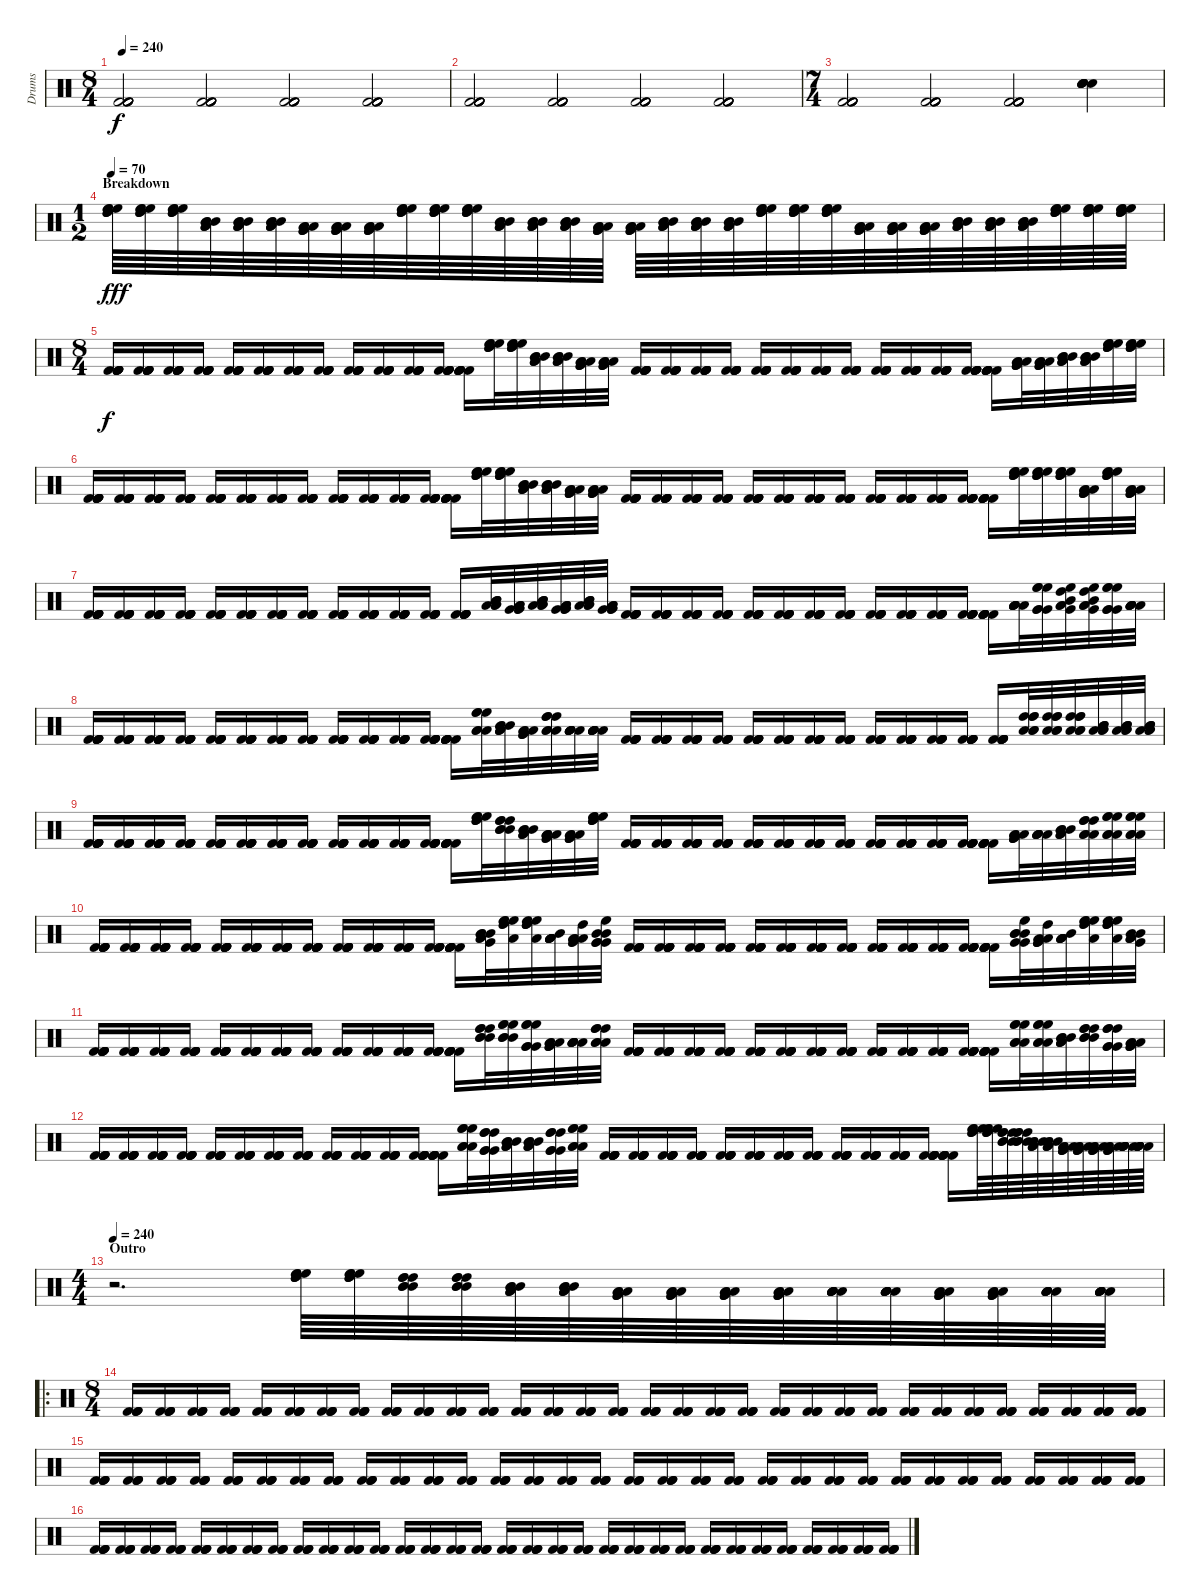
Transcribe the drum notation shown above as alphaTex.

\track ("Drums" "Drums") {instrument percussion}
\staff {score}
\articulation defaults
\ts (8 4)
\tempo 240
\clef neutral
\ks c
("Kick (hit) 2" "Kick (hit) 2" "Kick (hit) 2" "Kick (hit) 2" "Kick (hit) 2" "Kick (hit) 2").2{dy f} ("Kick (hit) 2" "Kick (hit) 2" "Kick (hit) 2" "Kick (hit) 2" "Kick (hit) 2" "Kick (hit) 2").2 ("Kick (hit) 2" "Kick (hit) 2" "Kick (hit) 2" "Kick (hit) 2" "Kick (hit) 2" "Kick (hit) 2").2 ("Kick (hit) 2" "Kick (hit) 2" "Kick (hit) 2" "Kick (hit) 2" "Kick (hit) 2" "Kick (hit) 2").2 |
("Kick (hit) 2" "Kick (hit) 2" "Kick (hit) 2" "Kick (hit) 2" "Kick (hit) 2" "Kick (hit) 2").2 ("Kick (hit) 2" "Kick (hit) 2" "Kick (hit) 2" "Kick (hit) 2" "Kick (hit) 2" "Kick (hit) 2").2 ("Kick (hit) 2" "Kick (hit) 2" "Kick (hit) 2" "Kick (hit) 2" "Kick (hit) 2" "Kick (hit) 2").2 ("Kick (hit) 2" "Kick (hit) 2" "Kick (hit) 2" "Kick (hit) 2" "Kick (hit) 2" "Kick (hit) 2").2 |
\ts (7 4)
("Kick (hit) 2" "Kick (hit) 2" "Kick (hit) 2" "Kick (hit) 2" "Kick (hit) 2" "Kick (hit) 2").2 ("Kick (hit) 2" "Kick (hit) 2" "Kick (hit) 2" "Kick (hit) 2" "Kick (hit) 2" "Kick (hit) 2").2 ("Kick (hit) 2" "Kick (hit) 2" "Kick (hit) 2" "Kick (hit) 2" "Kick (hit) 2" "Kick (hit) 2").2 ("Snare (hit) 2" "Snare (hit) 2" "Snare (hit) 2" "Snare (hit) 2" "Snare (hit) 2" "Snare (hit) 2").4 |
\ts (1 2)
\section ("" "Breakdown")
\tempo 70
("High Floor Tom (hit)" "High Floor Tom (hit)" "High Floor Tom (hit)" "High Tom (hit)" "High Tom (hit)" "High Tom (hit)").64{dy fff} ("High Floor Tom (hit)" "High Floor Tom (hit)" "High Floor Tom (hit)" "High Tom (hit)" "High Tom (hit)" "High Tom (hit)").64 ("High Floor Tom (hit)" "High Floor Tom (hit)" "High Floor Tom (hit)" "High Tom (hit)" "High Tom (hit)" "High Tom (hit)").64 ("Mid Tom (hit)" "Mid Tom (hit)" "Mid Tom (hit)" "Low Tom (hit)" "Low Tom (hit)" "Low Tom (hit)").64 ("Mid Tom (hit)" "Mid Tom (hit)" "Mid Tom (hit)" "Low Tom (hit)" "Low Tom (hit)" "Low Tom (hit)").64 ("Mid Tom (hit)" "Mid Tom (hit)" "Mid Tom (hit)" "Low Tom (hit)" "Low Tom (hit)" "Low Tom (hit)").64 ("Very Low Tom (hit)" "Very Low Tom (hit)" "Very Low Tom (hit)" "Low Floor Tom (hit)" "Low Floor Tom (hit)" "Low Floor Tom (hit)").64 ("Very Low Tom (hit)" "Very Low Tom (hit)" "Very Low Tom (hit)" "Low Floor Tom (hit)" "Low Floor Tom (hit)" "Low Floor Tom (hit)").64 ("Very Low Tom (hit)" "Very Low Tom (hit)" "Very Low Tom (hit)" "Low Floor Tom (hit)" "Low Floor Tom (hit)" "Low Floor Tom (hit)").64 ("High Floor Tom (hit)" "High Floor Tom (hit)" "High Floor Tom (hit)" "High Tom (hit)" "High Tom (hit)" "High Tom (hit)").64 ("High Floor Tom (hit)" "High Floor Tom (hit)" "High Floor Tom (hit)" "High Tom (hit)" "High Tom (hit)" "High Tom (hit)").64 ("High Floor Tom (hit)" "High Floor Tom (hit)" "High Floor Tom (hit)" "High Tom (hit)" "High Tom (hit)" "High Tom (hit)").64 ("Mid Tom (hit)" "Mid Tom (hit)" "Mid Tom (hit)" "Low Tom (hit)" "Low Tom (hit)" "Low Tom (hit)").64 ("Mid Tom (hit)" "Mid Tom (hit)" "Mid Tom (hit)" "Low Tom (hit)" "Low Tom (hit)" "Low Tom (hit)").64 ("Mid Tom (hit)" "Mid Tom (hit)" "Mid Tom (hit)" "Low Tom (hit)" "Low Tom (hit)" "Low Tom (hit)").64 ("Very Low Tom (hit)" "Very Low Tom (hit)" "Very Low Tom (hit)" "Low Floor Tom (hit)" "Low Floor Tom (hit)" "Low Floor Tom (hit)").64 ("Very Low Tom (hit)" "Very Low Tom (hit)" "Very Low Tom (hit)" "Low Floor Tom (hit)" "Low Floor Tom (hit)" "Low Floor Tom (hit)").64 ("Mid Tom (hit)" "Mid Tom (hit)" "Mid Tom (hit)" "Low Tom (hit)" "Low Tom (hit)" "Low Tom (hit)").64 ("Mid Tom (hit)" "Mid Tom (hit)" "Mid Tom (hit)" "Low Tom (hit)" "Low Tom (hit)" "Low Tom (hit)").64 ("Mid Tom (hit)" "Mid Tom (hit)" "Mid Tom (hit)" "Low Tom (hit)" "Low Tom (hit)" "Low Tom (hit)").64 ("High Floor Tom (hit)" "High Floor Tom (hit)" "High Floor Tom (hit)" "High Tom (hit)" "High Tom (hit)" "High Tom (hit)").64 ("High Floor Tom (hit)" "High Floor Tom (hit)" "High Floor Tom (hit)" "High Tom (hit)" "High Tom (hit)" "High Tom (hit)").64 ("High Floor Tom (hit)" "High Floor Tom (hit)" "High Floor Tom (hit)" "High Tom (hit)" "High Tom (hit)" "High Tom (hit)").64 ("Very Low Tom (hit)" "Very Low Tom (hit)" "Very Low Tom (hit)" "Low Floor Tom (hit)" "Low Floor Tom (hit)" "Low Floor Tom (hit)").64 ("Very Low Tom (hit)" "Very Low Tom (hit)" "Very Low Tom (hit)" "Low Floor Tom (hit)" "Low Floor Tom (hit)" "Low Floor Tom (hit)").64 ("Very Low Tom (hit)" "Very Low Tom (hit)" "Very Low Tom (hit)" "Low Floor Tom (hit)" "Low Floor Tom (hit)" "Low Floor Tom (hit)").64 ("Mid Tom (hit)" "Mid Tom (hit)" "Mid Tom (hit)" "Low Tom (hit)" "Low Tom (hit)" "Low Tom (hit)").64 ("Mid Tom (hit)" "Mid Tom (hit)" "Mid Tom (hit)" "Low Tom (hit)" "Low Tom (hit)" "Low Tom (hit)").64 ("Mid Tom (hit)" "Mid Tom (hit)" "Mid Tom (hit)" "Low Tom (hit)" "Low Tom (hit)" "Low Tom (hit)").64 ("High Floor Tom (hit)" "High Floor Tom (hit)" "High Floor Tom (hit)" "High Tom (hit)" "High Tom (hit)" "High Tom (hit)").64 ("High Floor Tom (hit)" "High Floor Tom (hit)" "High Floor Tom (hit)" "High Tom (hit)" "High Tom (hit)" "High Tom (hit)").64 ("High Floor Tom (hit)" "High Floor Tom (hit)" "High Floor Tom (hit)" "High Tom (hit)" "High Tom (hit)" "High Tom (hit)").64 |
\ts (8 4)
("Kick (hit) 2" "Kick (hit) 2" "Kick (hit) 2" "Kick (hit) 2" "Kick (hit) 2" "Kick (hit) 2").16{dy f} ("Kick (hit) 2" "Kick (hit) 2" "Kick (hit) 2" "Kick (hit) 2" "Kick (hit) 2" "Kick (hit) 2").16 ("Kick (hit) 2" "Kick (hit) 2" "Kick (hit) 2" "Kick (hit) 2" "Kick (hit) 2" "Kick (hit) 2").16 ("Kick (hit) 2" "Kick (hit) 2" "Kick (hit) 2" "Kick (hit) 2" "Kick (hit) 2" "Kick (hit) 2").16 ("Kick (hit) 2" "Kick (hit) 2" "Kick (hit) 2" "Kick (hit) 2" "Kick (hit) 2" "Kick (hit) 2").16 ("Kick (hit) 2" "Kick (hit) 2" "Kick (hit) 2" "Kick (hit) 2" "Kick (hit) 2" "Kick (hit) 2").16 ("Kick (hit) 2" "Kick (hit) 2" "Kick (hit) 2" "Kick (hit) 2" "Kick (hit) 2" "Kick (hit) 2").16 ("Kick (hit) 2" "Kick (hit) 2" "Kick (hit) 2" "Kick (hit) 2" "Kick (hit) 2" "Kick (hit) 2").16 ("Kick (hit) 2" "Kick (hit) 2" "Kick (hit) 2" "Kick (hit) 2" "Kick (hit) 2" "Kick (hit) 2").16 ("Kick (hit) 2" "Kick (hit) 2" "Kick (hit) 2" "Kick (hit) 2" "Kick (hit) 2" "Kick (hit) 2").16 ("Kick (hit) 2" "Kick (hit) 2" "Kick (hit) 2" "Kick (hit) 2" "Kick (hit) 2" "Kick (hit) 2").16 ("Kick (hit) 2" "Kick (hit) 2" "Kick (hit) 2" "Kick (hit) 2" "Kick (hit) 2" "Kick (hit) 2").16 ("Kick (hit) 2" "Kick (hit) 2" "Kick (hit) 2" "Kick (hit) 2" "Kick (hit) 2" "Kick (hit) 2").16 ("High Floor Tom (hit)" "High Floor Tom (hit)" "High Floor Tom (hit)" "High Tom (hit)" "High Tom (hit)" "High Tom (hit)").32 ("High Floor Tom (hit)" "High Floor Tom (hit)" "High Floor Tom (hit)" "High Tom (hit)" "High Tom (hit)" "High Tom (hit)").32 ("Mid Tom (hit)" "Mid Tom (hit)" "Mid Tom (hit)" "Low Tom (hit)" "Low Tom (hit)" "Low Tom (hit)").32 ("Mid Tom (hit)" "Mid Tom (hit)" "Mid Tom (hit)" "Low Tom (hit)" "Low Tom (hit)" "Low Tom (hit)").32 ("Very Low Tom (hit)" "Very Low Tom (hit)" "Very Low Tom (hit)" "Low Floor Tom (hit)" "Low Floor Tom (hit)" "Low Floor Tom (hit)").32 ("Very Low Tom (hit)" "Very Low Tom (hit)" "Very Low Tom (hit)" "Low Floor Tom (hit)" "Low Floor Tom (hit)" "Low Floor Tom (hit)").32 ("Kick (hit) 2" "Kick (hit) 2" "Kick (hit) 2" "Kick (hit) 2" "Kick (hit) 2" "Kick (hit) 2").16 ("Kick (hit) 2" "Kick (hit) 2" "Kick (hit) 2" "Kick (hit) 2" "Kick (hit) 2" "Kick (hit) 2").16 ("Kick (hit) 2" "Kick (hit) 2" "Kick (hit) 2" "Kick (hit) 2" "Kick (hit) 2" "Kick (hit) 2").16 ("Kick (hit) 2" "Kick (hit) 2" "Kick (hit) 2" "Kick (hit) 2" "Kick (hit) 2" "Kick (hit) 2").16 ("Kick (hit) 2" "Kick (hit) 2" "Kick (hit) 2" "Kick (hit) 2" "Kick (hit) 2" "Kick (hit) 2").16 ("Kick (hit) 2" "Kick (hit) 2" "Kick (hit) 2" "Kick (hit) 2" "Kick (hit) 2" "Kick (hit) 2").16 ("Kick (hit) 2" "Kick (hit) 2" "Kick (hit) 2" "Kick (hit) 2" "Kick (hit) 2" "Kick (hit) 2").16 ("Kick (hit) 2" "Kick (hit) 2" "Kick (hit) 2" "Kick (hit) 2" "Kick (hit) 2" "Kick (hit) 2").16 ("Kick (hit) 2" "Kick (hit) 2" "Kick (hit) 2" "Kick (hit) 2" "Kick (hit) 2" "Kick (hit) 2").16 ("Kick (hit) 2" "Kick (hit) 2" "Kick (hit) 2" "Kick (hit) 2" "Kick (hit) 2" "Kick (hit) 2").16 ("Kick (hit) 2" "Kick (hit) 2" "Kick (hit) 2" "Kick (hit) 2" "Kick (hit) 2" "Kick (hit) 2").16 ("Kick (hit) 2" "Kick (hit) 2" "Kick (hit) 2" "Kick (hit) 2" "Kick (hit) 2" "Kick (hit) 2").16 ("Kick (hit) 2" "Kick (hit) 2" "Kick (hit) 2" "Kick (hit) 2" "Kick (hit) 2" "Kick (hit) 2").16 ("Very Low Tom (hit)" "Very Low Tom (hit)" "Very Low Tom (hit)" "Low Floor Tom (hit)" "Low Floor Tom (hit)" "Low Floor Tom (hit)").32 ("Very Low Tom (hit)" "Very Low Tom (hit)" "Very Low Tom (hit)" "Low Floor Tom (hit)" "Low Floor Tom (hit)" "Low Floor Tom (hit)").32 ("Mid Tom (hit)" "Mid Tom (hit)" "Mid Tom (hit)" "Low Tom (hit)" "Low Tom (hit)" "Low Tom (hit)").32 ("Mid Tom (hit)" "Mid Tom (hit)" "Mid Tom (hit)" "Low Tom (hit)" "Low Tom (hit)" "Low Tom (hit)").32 ("High Floor Tom (hit)" "High Floor Tom (hit)" "High Floor Tom (hit)" "High Tom (hit)" "High Tom (hit)" "High Tom (hit)").32 ("High Floor Tom (hit)" "High Floor Tom (hit)" "High Floor Tom (hit)" "High Tom (hit)" "High Tom (hit)" "High Tom (hit)").32 |
("Kick (hit) 2" "Kick (hit) 2" "Kick (hit) 2" "Kick (hit) 2" "Kick (hit) 2" "Kick (hit) 2").16 ("Kick (hit) 2" "Kick (hit) 2" "Kick (hit) 2" "Kick (hit) 2" "Kick (hit) 2" "Kick (hit) 2").16 ("Kick (hit) 2" "Kick (hit) 2" "Kick (hit) 2" "Kick (hit) 2" "Kick (hit) 2" "Kick (hit) 2").16 ("Kick (hit) 2" "Kick (hit) 2" "Kick (hit) 2" "Kick (hit) 2" "Kick (hit) 2" "Kick (hit) 2").16 ("Kick (hit) 2" "Kick (hit) 2" "Kick (hit) 2" "Kick (hit) 2" "Kick (hit) 2" "Kick (hit) 2").16 ("Kick (hit) 2" "Kick (hit) 2" "Kick (hit) 2" "Kick (hit) 2" "Kick (hit) 2" "Kick (hit) 2").16 ("Kick (hit) 2" "Kick (hit) 2" "Kick (hit) 2" "Kick (hit) 2" "Kick (hit) 2" "Kick (hit) 2").16 ("Kick (hit) 2" "Kick (hit) 2" "Kick (hit) 2" "Kick (hit) 2" "Kick (hit) 2" "Kick (hit) 2").16 ("Kick (hit) 2" "Kick (hit) 2" "Kick (hit) 2" "Kick (hit) 2" "Kick (hit) 2" "Kick (hit) 2").16 ("Kick (hit) 2" "Kick (hit) 2" "Kick (hit) 2" "Kick (hit) 2" "Kick (hit) 2" "Kick (hit) 2").16 ("Kick (hit) 2" "Kick (hit) 2" "Kick (hit) 2" "Kick (hit) 2" "Kick (hit) 2" "Kick (hit) 2").16 ("Kick (hit) 2" "Kick (hit) 2" "Kick (hit) 2" "Kick (hit) 2" "Kick (hit) 2" "Kick (hit) 2").16 ("Kick (hit) 2" "Kick (hit) 2" "Kick (hit) 2" "Kick (hit) 2" "Kick (hit) 2" "Kick (hit) 2").16 ("High Floor Tom (hit)" "High Floor Tom (hit)" "High Floor Tom (hit)" "High Tom (hit)" "High Tom (hit)" "High Tom (hit)").32 ("High Floor Tom (hit)" "High Floor Tom (hit)" "High Floor Tom (hit)" "High Tom (hit)" "High Tom (hit)" "High Tom (hit)").32 ("Mid Tom (hit)" "Mid Tom (hit)" "Mid Tom (hit)" "Low Tom (hit)" "Low Tom (hit)" "Low Tom (hit)").32 ("Mid Tom (hit)" "Mid Tom (hit)" "Mid Tom (hit)" "Low Tom (hit)" "Low Tom (hit)" "Low Tom (hit)").32 ("Very Low Tom (hit)" "Very Low Tom (hit)" "Very Low Tom (hit)" "Low Floor Tom (hit)" "Low Floor Tom (hit)" "Low Floor Tom (hit)").32 ("Very Low Tom (hit)" "Very Low Tom (hit)" "Very Low Tom (hit)" "Low Floor Tom (hit)" "Low Floor Tom (hit)" "Low Floor Tom (hit)").32 ("Kick (hit) 2" "Kick (hit) 2" "Kick (hit) 2" "Kick (hit) 2" "Kick (hit) 2" "Kick (hit) 2").16 ("Kick (hit) 2" "Kick (hit) 2" "Kick (hit) 2" "Kick (hit) 2" "Kick (hit) 2" "Kick (hit) 2").16 ("Kick (hit) 2" "Kick (hit) 2" "Kick (hit) 2" "Kick (hit) 2" "Kick (hit) 2" "Kick (hit) 2").16 ("Kick (hit) 2" "Kick (hit) 2" "Kick (hit) 2" "Kick (hit) 2" "Kick (hit) 2" "Kick (hit) 2").16 ("Kick (hit) 2" "Kick (hit) 2" "Kick (hit) 2" "Kick (hit) 2" "Kick (hit) 2" "Kick (hit) 2").16 ("Kick (hit) 2" "Kick (hit) 2" "Kick (hit) 2" "Kick (hit) 2" "Kick (hit) 2" "Kick (hit) 2").16 ("Kick (hit) 2" "Kick (hit) 2" "Kick (hit) 2" "Kick (hit) 2" "Kick (hit) 2" "Kick (hit) 2").16 ("Kick (hit) 2" "Kick (hit) 2" "Kick (hit) 2" "Kick (hit) 2" "Kick (hit) 2" "Kick (hit) 2").16 ("Kick (hit) 2" "Kick (hit) 2" "Kick (hit) 2" "Kick (hit) 2" "Kick (hit) 2" "Kick (hit) 2").16 ("Kick (hit) 2" "Kick (hit) 2" "Kick (hit) 2" "Kick (hit) 2" "Kick (hit) 2" "Kick (hit) 2").16 ("Kick (hit) 2" "Kick (hit) 2" "Kick (hit) 2" "Kick (hit) 2" "Kick (hit) 2" "Kick (hit) 2").16 ("Kick (hit) 2" "Kick (hit) 2" "Kick (hit) 2" "Kick (hit) 2" "Kick (hit) 2" "Kick (hit) 2").16 ("Kick (hit) 2" "Kick (hit) 2" "Kick (hit) 2" "Kick (hit) 2" "Kick (hit) 2" "Kick (hit) 2").16 ("High Floor Tom (hit)" "High Floor Tom (hit)" "High Floor Tom (hit)" "High Tom (hit)" "High Tom (hit)" "High Tom (hit)").32 ("High Floor Tom (hit)" "High Floor Tom (hit)" "High Floor Tom (hit)" "High Tom (hit)" "High Tom (hit)" "High Tom (hit)").32 ("High Floor Tom (hit)" "High Floor Tom (hit)" "High Floor Tom (hit)" "High Tom (hit)" "High Tom (hit)" "High Tom (hit)").32 ("Very Low Tom (hit)" "Very Low Tom (hit)" "Very Low Tom (hit)" "Low Floor Tom (hit)" "Low Floor Tom (hit)" "Low Floor Tom (hit)").32 ("High Floor Tom (hit)" "High Floor Tom (hit)" "High Floor Tom (hit)" "High Tom (hit)" "High Tom (hit)" "High Tom (hit)").32 ("Very Low Tom (hit)" "Very Low Tom (hit)" "Very Low Tom (hit)" "Low Floor Tom (hit)" "Low Floor Tom (hit)" "Low Floor Tom (hit)").32 |
("Kick (hit) 2" "Kick (hit) 2" "Kick (hit) 2" "Kick (hit) 2" "Kick (hit) 2" "Kick (hit) 2").16 ("Kick (hit) 2" "Kick (hit) 2" "Kick (hit) 2" "Kick (hit) 2" "Kick (hit) 2" "Kick (hit) 2").16 ("Kick (hit) 2" "Kick (hit) 2" "Kick (hit) 2" "Kick (hit) 2" "Kick (hit) 2" "Kick (hit) 2").16 ("Kick (hit) 2" "Kick (hit) 2" "Kick (hit) 2" "Kick (hit) 2" "Kick (hit) 2" "Kick (hit) 2").16 ("Kick (hit) 2" "Kick (hit) 2" "Kick (hit) 2" "Kick (hit) 2" "Kick (hit) 2" "Kick (hit) 2").16 ("Kick (hit) 2" "Kick (hit) 2" "Kick (hit) 2" "Kick (hit) 2" "Kick (hit) 2" "Kick (hit) 2").16 ("Kick (hit) 2" "Kick (hit) 2" "Kick (hit) 2" "Kick (hit) 2" "Kick (hit) 2" "Kick (hit) 2").16 ("Kick (hit) 2" "Kick (hit) 2" "Kick (hit) 2" "Kick (hit) 2" "Kick (hit) 2" "Kick (hit) 2").16 ("Kick (hit) 2" "Kick (hit) 2" "Kick (hit) 2" "Kick (hit) 2" "Kick (hit) 2" "Kick (hit) 2").16 ("Kick (hit) 2" "Kick (hit) 2" "Kick (hit) 2" "Kick (hit) 2" "Kick (hit) 2" "Kick (hit) 2").16 ("Kick (hit) 2" "Kick (hit) 2" "Kick (hit) 2" "Kick (hit) 2" "Kick (hit) 2" "Kick (hit) 2").16 ("Kick (hit) 2" "Kick (hit) 2" "Kick (hit) 2" "Kick (hit) 2" "Kick (hit) 2" "Kick (hit) 2").16 ("Kick (hit) 2" "Kick (hit) 2" "Kick (hit) 2" "Kick (hit) 2" "Kick (hit) 2" "Kick (hit) 2").16 ("Mid Tom (hit)" "Mid Tom (hit)" "Mid Tom (hit)" "Low Tom (hit)" "Low Tom (hit)" "Low Tom (hit)").32 ("Very Low Tom (hit)" "Very Low Tom (hit)" "Very Low Tom (hit)" "Low Floor Tom (hit)" "Low Floor Tom (hit)" "Low Floor Tom (hit)").32 ("Mid Tom (hit)" "Mid Tom (hit)" "Mid Tom (hit)" "Low Tom (hit)" "Low Tom (hit)" "Low Tom (hit)").32 ("Very Low Tom (hit)" "Very Low Tom (hit)" "Very Low Tom (hit)" "Low Floor Tom (hit)" "Low Floor Tom (hit)" "Low Floor Tom (hit)").32 ("Mid Tom (hit)" "Mid Tom (hit)" "Mid Tom (hit)" "Low Tom (hit)" "Low Tom (hit)" "Low Tom (hit)").32 ("Very Low Tom (hit)" "Very Low Tom (hit)" "Very Low Tom (hit)" "Low Floor Tom (hit)" "Low Floor Tom (hit)" "Low Floor Tom (hit)").32 ("Kick (hit) 2" "Kick (hit) 2" "Kick (hit) 2" "Kick (hit) 2" "Kick (hit) 2" "Kick (hit) 2").16 ("Kick (hit) 2" "Kick (hit) 2" "Kick (hit) 2" "Kick (hit) 2" "Kick (hit) 2" "Kick (hit) 2").16 ("Kick (hit) 2" "Kick (hit) 2" "Kick (hit) 2" "Kick (hit) 2" "Kick (hit) 2" "Kick (hit) 2").16 ("Kick (hit) 2" "Kick (hit) 2" "Kick (hit) 2" "Kick (hit) 2" "Kick (hit) 2" "Kick (hit) 2").16 ("Kick (hit) 2" "Kick (hit) 2" "Kick (hit) 2" "Kick (hit) 2" "Kick (hit) 2" "Kick (hit) 2").16 ("Kick (hit) 2" "Kick (hit) 2" "Kick (hit) 2" "Kick (hit) 2" "Kick (hit) 2" "Kick (hit) 2").16 ("Kick (hit) 2" "Kick (hit) 2" "Kick (hit) 2" "Kick (hit) 2" "Kick (hit) 2" "Kick (hit) 2").16 ("Kick (hit) 2" "Kick (hit) 2" "Kick (hit) 2" "Kick (hit) 2" "Kick (hit) 2" "Kick (hit) 2").16 ("Kick (hit) 2" "Kick (hit) 2" "Kick (hit) 2" "Kick (hit) 2" "Kick (hit) 2" "Kick (hit) 2").16 ("Kick (hit) 2" "Kick (hit) 2" "Kick (hit) 2" "Kick (hit) 2" "Kick (hit) 2" "Kick (hit) 2").16 ("Kick (hit) 2" "Kick (hit) 2" "Kick (hit) 2" "Kick (hit) 2" "Kick (hit) 2" "Kick (hit) 2").16 ("Kick (hit) 2" "Kick (hit) 2" "Kick (hit) 2" "Kick (hit) 2" "Kick (hit) 2" "Kick (hit) 2").16 ("Kick (hit) 2" "Kick (hit) 2" "Kick (hit) 2" "Kick (hit) 2" "Kick (hit) 2" "Kick (hit) 2").16 ("Low Tom (hit)" "Low Tom (hit)" "Low Tom (hit)" "Low Floor Tom (hit)" "Low Floor Tom (hit)" "Low Floor Tom (hit)").32 ("High Floor Tom (hit)" "High Floor Tom (hit)" "High Floor Tom (hit)" "Very Low Tom (hit)" "Very Low Tom (hit)" "Very Low Tom (hit)").32 ("High Floor Tom (hit)" "High Tom (hit)" "Mid Tom (hit)" "Low Tom (hit)" "Very Low Tom (hit)" "Low Floor Tom (hit)").32 ("High Floor Tom (hit)" "High Tom (hit)" "Mid Tom (hit)" "Low Tom (hit)" "Very Low Tom (hit)" "Low Floor Tom (hit)").32 ("High Floor Tom (hit)" "High Floor Tom (hit)" "High Floor Tom (hit)" "Very Low Tom (hit)" "Very Low Tom (hit)" "Very Low Tom (hit)").32 ("Low Tom (hit)" "Low Tom (hit)" "Low Tom (hit)" "Low Floor Tom (hit)" "Low Floor Tom (hit)" "Low Floor Tom (hit)").32 |
("Kick (hit) 2" "Kick (hit) 2" "Kick (hit) 2" "Kick (hit) 2" "Kick (hit) 2" "Kick (hit) 2").16 ("Kick (hit) 2" "Kick (hit) 2" "Kick (hit) 2" "Kick (hit) 2" "Kick (hit) 2" "Kick (hit) 2").16 ("Kick (hit) 2" "Kick (hit) 2" "Kick (hit) 2" "Kick (hit) 2" "Kick (hit) 2" "Kick (hit) 2").16 ("Kick (hit) 2" "Kick (hit) 2" "Kick (hit) 2" "Kick (hit) 2" "Kick (hit) 2" "Kick (hit) 2").16 ("Kick (hit) 2" "Kick (hit) 2" "Kick (hit) 2" "Kick (hit) 2" "Kick (hit) 2" "Kick (hit) 2").16 ("Kick (hit) 2" "Kick (hit) 2" "Kick (hit) 2" "Kick (hit) 2" "Kick (hit) 2" "Kick (hit) 2").16 ("Kick (hit) 2" "Kick (hit) 2" "Kick (hit) 2" "Kick (hit) 2" "Kick (hit) 2" "Kick (hit) 2").16 ("Kick (hit) 2" "Kick (hit) 2" "Kick (hit) 2" "Kick (hit) 2" "Kick (hit) 2" "Kick (hit) 2").16 ("Kick (hit) 2" "Kick (hit) 2" "Kick (hit) 2" "Kick (hit) 2" "Kick (hit) 2" "Kick (hit) 2").16 ("Kick (hit) 2" "Kick (hit) 2" "Kick (hit) 2" "Kick (hit) 2" "Kick (hit) 2" "Kick (hit) 2").16 ("Kick (hit) 2" "Kick (hit) 2" "Kick (hit) 2" "Kick (hit) 2" "Kick (hit) 2" "Kick (hit) 2").16 ("Kick (hit) 2" "Kick (hit) 2" "Kick (hit) 2" "Kick (hit) 2" "Kick (hit) 2" "Kick (hit) 2").16 ("Kick (hit) 2" "Kick (hit) 2" "Kick (hit) 2" "Kick (hit) 2" "Kick (hit) 2" "Kick (hit) 2").16 ("High Floor Tom (hit)" "High Floor Tom (hit)" "High Floor Tom (hit)" "Low Tom (hit)" "Low Tom (hit)" "Low Tom (hit)").32 ("Mid Tom (hit)" "Mid Tom (hit)" "Mid Tom (hit)" "Low Floor Tom (hit)" "Low Floor Tom (hit)" "Low Floor Tom (hit)").32 ("Very Low Tom (hit)" "Very Low Tom (hit)" "Very Low Tom (hit)" "Low Tom (hit)" "Low Tom (hit)" "Low Tom (hit)").32 ("High Tom (hit)" "High Tom (hit)" "High Tom (hit)" "Low Floor Tom (hit)" "Low Floor Tom (hit)" "Low Floor Tom (hit)").32 ("Low Floor Tom (hit)" "Low Floor Tom (hit)" "Low Floor Tom (hit)" "Low Tom (hit)" "Low Tom (hit)" "Low Tom (hit)").32 ("Low Tom (hit)" "Low Tom (hit)" "Low Tom (hit)" "Low Floor Tom (hit)" "Low Floor Tom (hit)" "Low Floor Tom (hit)").32 ("Kick (hit) 2" "Kick (hit) 2" "Kick (hit) 2" "Kick (hit) 2" "Kick (hit) 2" "Kick (hit) 2").16 ("Kick (hit) 2" "Kick (hit) 2" "Kick (hit) 2" "Kick (hit) 2" "Kick (hit) 2" "Kick (hit) 2").16 ("Kick (hit) 2" "Kick (hit) 2" "Kick (hit) 2" "Kick (hit) 2" "Kick (hit) 2" "Kick (hit) 2").16 ("Kick (hit) 2" "Kick (hit) 2" "Kick (hit) 2" "Kick (hit) 2" "Kick (hit) 2" "Kick (hit) 2").16 ("Kick (hit) 2" "Kick (hit) 2" "Kick (hit) 2" "Kick (hit) 2" "Kick (hit) 2" "Kick (hit) 2").16 ("Kick (hit) 2" "Kick (hit) 2" "Kick (hit) 2" "Kick (hit) 2" "Kick (hit) 2" "Kick (hit) 2").16 ("Kick (hit) 2" "Kick (hit) 2" "Kick (hit) 2" "Kick (hit) 2" "Kick (hit) 2" "Kick (hit) 2").16 ("Kick (hit) 2" "Kick (hit) 2" "Kick (hit) 2" "Kick (hit) 2" "Kick (hit) 2" "Kick (hit) 2").16 ("Kick (hit) 2" "Kick (hit) 2" "Kick (hit) 2" "Kick (hit) 2" "Kick (hit) 2" "Kick (hit) 2").16 ("Kick (hit) 2" "Kick (hit) 2" "Kick (hit) 2" "Kick (hit) 2" "Kick (hit) 2" "Kick (hit) 2").16 ("Kick (hit) 2" "Kick (hit) 2" "Kick (hit) 2" "Kick (hit) 2" "Kick (hit) 2" "Kick (hit) 2").16 ("Kick (hit) 2" "Kick (hit) 2" "Kick (hit) 2" "Kick (hit) 2" "Kick (hit) 2" "Kick (hit) 2").16 ("Kick (hit) 2" "Kick (hit) 2" "Kick (hit) 2" "Kick (hit) 2" "Kick (hit) 2" "Kick (hit) 2").16 ("Low Floor Tom (hit)" "Low Floor Tom (hit)" "Low Floor Tom (hit)" "High Tom (hit)" "High Tom (hit)" "High Tom (hit)").32 ("Low Floor Tom (hit)" "Low Floor Tom (hit)" "Low Floor Tom (hit)" "High Tom (hit)" "High Tom (hit)" "High Tom (hit)").32 ("Low Floor Tom (hit)" "Low Floor Tom (hit)" "Low Floor Tom (hit)" "High Tom (hit)" "High Tom (hit)" "High Tom (hit)").32 ("Mid Tom (hit)" "Mid Tom (hit)" "Mid Tom (hit)" "Low Tom (hit)" "Low Tom (hit)" "Low Tom (hit)").32 ("Mid Tom (hit)" "Mid Tom (hit)" "Mid Tom (hit)" "Low Tom (hit)" "Low Tom (hit)" "Low Tom (hit)").32 ("Mid Tom (hit)" "Mid Tom (hit)" "Mid Tom (hit)" "Low Tom (hit)" "Low Tom (hit)" "Low Tom (hit)").32 |
("Kick (hit) 2" "Kick (hit) 2" "Kick (hit) 2" "Kick (hit) 2" "Kick (hit) 2" "Kick (hit) 2").16 ("Kick (hit) 2" "Kick (hit) 2" "Kick (hit) 2" "Kick (hit) 2" "Kick (hit) 2" "Kick (hit) 2").16 ("Kick (hit) 2" "Kick (hit) 2" "Kick (hit) 2" "Kick (hit) 2" "Kick (hit) 2" "Kick (hit) 2").16 ("Kick (hit) 2" "Kick (hit) 2" "Kick (hit) 2" "Kick (hit) 2" "Kick (hit) 2" "Kick (hit) 2").16 ("Kick (hit) 2" "Kick (hit) 2" "Kick (hit) 2" "Kick (hit) 2" "Kick (hit) 2" "Kick (hit) 2").16 ("Kick (hit) 2" "Kick (hit) 2" "Kick (hit) 2" "Kick (hit) 2" "Kick (hit) 2" "Kick (hit) 2").16 ("Kick (hit) 2" "Kick (hit) 2" "Kick (hit) 2" "Kick (hit) 2" "Kick (hit) 2" "Kick (hit) 2").16 ("Kick (hit) 2" "Kick (hit) 2" "Kick (hit) 2" "Kick (hit) 2" "Kick (hit) 2" "Kick (hit) 2").16 ("Kick (hit) 2" "Kick (hit) 2" "Kick (hit) 2" "Kick (hit) 2" "Kick (hit) 2" "Kick (hit) 2").16 ("Kick (hit) 2" "Kick (hit) 2" "Kick (hit) 2" "Kick (hit) 2" "Kick (hit) 2" "Kick (hit) 2").16 ("Kick (hit) 2" "Kick (hit) 2" "Kick (hit) 2" "Kick (hit) 2" "Kick (hit) 2" "Kick (hit) 2").16 ("Kick (hit) 2" "Kick (hit) 2" "Kick (hit) 2" "Kick (hit) 2" "Kick (hit) 2" "Kick (hit) 2").16 ("Kick (hit) 2" "Kick (hit) 2" "Kick (hit) 2" "Kick (hit) 2" "Kick (hit) 2" "Kick (hit) 2").16 ("High Floor Tom (hit)" "High Floor Tom (hit)" "High Floor Tom (hit)" "High Tom (hit)" "High Tom (hit)" "High Tom (hit)").32 ("High Tom (hit)" "High Tom (hit)" "High Tom (hit)" "Mid Tom (hit)" "Mid Tom (hit)" "Mid Tom (hit)").32 ("Mid Tom (hit)" "Mid Tom (hit)" "Mid Tom (hit)" "Low Tom (hit)" "Low Tom (hit)" "Low Tom (hit)").32 ("Low Tom (hit)" "Low Tom (hit)" "Low Tom (hit)" "Low Tom (hit)" "Very Low Tom (hit)" "Very Low Tom (hit)").32 ("Very Low Tom (hit)" "Very Low Tom (hit)" "Very Low Tom (hit)" "Low Floor Tom (hit)" "Low Floor Tom (hit)" "Low Floor Tom (hit)").32 ("High Floor Tom (hit)" "High Floor Tom (hit)" "High Floor Tom (hit)" "High Tom (hit)" "High Tom (hit)" "High Tom (hit)").32 ("Kick (hit) 2" "Kick (hit) 2" "Kick (hit) 2" "Kick (hit) 2" "Kick (hit) 2" "Kick (hit) 2").16 ("Kick (hit) 2" "Kick (hit) 2" "Kick (hit) 2" "Kick (hit) 2" "Kick (hit) 2" "Kick (hit) 2").16 ("Kick (hit) 2" "Kick (hit) 2" "Kick (hit) 2" "Kick (hit) 2" "Kick (hit) 2" "Kick (hit) 2").16 ("Kick (hit) 2" "Kick (hit) 2" "Kick (hit) 2" "Kick (hit) 2" "Kick (hit) 2" "Kick (hit) 2").16 ("Kick (hit) 2" "Kick (hit) 2" "Kick (hit) 2" "Kick (hit) 2" "Kick (hit) 2" "Kick (hit) 2").16 ("Kick (hit) 2" "Kick (hit) 2" "Kick (hit) 2" "Kick (hit) 2" "Kick (hit) 2" "Kick (hit) 2").16 ("Kick (hit) 2" "Kick (hit) 2" "Kick (hit) 2" "Kick (hit) 2" "Kick (hit) 2" "Kick (hit) 2").16 ("Kick (hit) 2" "Kick (hit) 2" "Kick (hit) 2" "Kick (hit) 2" "Kick (hit) 2" "Kick (hit) 2").16 ("Kick (hit) 2" "Kick (hit) 2" "Kick (hit) 2" "Kick (hit) 2" "Kick (hit) 2" "Kick (hit) 2").16 ("Kick (hit) 2" "Kick (hit) 2" "Kick (hit) 2" "Kick (hit) 2" "Kick (hit) 2" "Kick (hit) 2").16 ("Kick (hit) 2" "Kick (hit) 2" "Kick (hit) 2" "Kick (hit) 2" "Kick (hit) 2" "Kick (hit) 2").16 ("Kick (hit) 2" "Kick (hit) 2" "Kick (hit) 2" "Kick (hit) 2" "Kick (hit) 2" "Kick (hit) 2").16 ("Kick (hit) 2" "Kick (hit) 2" "Kick (hit) 2" "Kick (hit) 2" "Kick (hit) 2" "Kick (hit) 2").16 ("Very Low Tom (hit)" "Very Low Tom (hit)" "Very Low Tom (hit)" "Low Floor Tom (hit)" "Low Floor Tom (hit)" "Low Floor Tom (hit)").32 ("Low Tom (hit)" "Low Tom (hit)" "Low Tom (hit)" "Low Floor Tom (hit)" "Low Floor Tom (hit)" "Low Floor Tom (hit)").32 ("Mid Tom (hit)" "Mid Tom (hit)" "Mid Tom (hit)" "Low Floor Tom (hit)" "Low Floor Tom (hit)" "Low Floor Tom (hit)").32 ("High Tom (hit)" "High Tom (hit)" "High Tom (hit)" "Low Floor Tom (hit)" "Low Floor Tom (hit)" "Low Floor Tom (hit)").32 ("High Floor Tom (hit)" "High Floor Tom (hit)" "High Floor Tom (hit)" "Low Floor Tom (hit)" "Low Floor Tom (hit)" "Low Floor Tom (hit)").32 ("High Floor Tom (hit)" "High Floor Tom (hit)" "High Floor Tom (hit)" "Low Floor Tom (hit)" "Low Floor Tom (hit)" "Low Floor Tom (hit)").32 |
("Kick (hit) 2" "Kick (hit) 2" "Kick (hit) 2" "Kick (hit) 2" "Kick (hit) 2" "Kick (hit) 2").16 ("Kick (hit) 2" "Kick (hit) 2" "Kick (hit) 2" "Kick (hit) 2" "Kick (hit) 2" "Kick (hit) 2").16 ("Kick (hit) 2" "Kick (hit) 2" "Kick (hit) 2" "Kick (hit) 2" "Kick (hit) 2" "Kick (hit) 2").16 ("Kick (hit) 2" "Kick (hit) 2" "Kick (hit) 2" "Kick (hit) 2" "Kick (hit) 2" "Kick (hit) 2").16 ("Kick (hit) 2" "Kick (hit) 2" "Kick (hit) 2" "Kick (hit) 2" "Kick (hit) 2" "Kick (hit) 2").16 ("Kick (hit) 2" "Kick (hit) 2" "Kick (hit) 2" "Kick (hit) 2" "Kick (hit) 2" "Kick (hit) 2").16 ("Kick (hit) 2" "Kick (hit) 2" "Kick (hit) 2" "Kick (hit) 2" "Kick (hit) 2" "Kick (hit) 2").16 ("Kick (hit) 2" "Kick (hit) 2" "Kick (hit) 2" "Kick (hit) 2" "Kick (hit) 2" "Kick (hit) 2").16 ("Kick (hit) 2" "Kick (hit) 2" "Kick (hit) 2" "Kick (hit) 2" "Kick (hit) 2" "Kick (hit) 2").16 ("Kick (hit) 2" "Kick (hit) 2" "Kick (hit) 2" "Kick (hit) 2" "Kick (hit) 2" "Kick (hit) 2").16 ("Kick (hit) 2" "Kick (hit) 2" "Kick (hit) 2" "Kick (hit) 2" "Kick (hit) 2" "Kick (hit) 2").16 ("Kick (hit) 2" "Kick (hit) 2" "Kick (hit) 2" "Kick (hit) 2" "Kick (hit) 2" "Kick (hit) 2").16 ("Kick (hit) 2" "Kick (hit) 2" "Kick (hit) 2" "Kick (hit) 2" "Kick (hit) 2" "Kick (hit) 2").16 ("Low Tom (hit)" "Low Tom (hit)" "Very Low Tom (hit)" "Mid Tom (hit)" "Mid Tom (hit)" "Mid Tom (hit)").32 ("High Tom (hit)" "High Tom (hit)" "Low Tom (hit)" "High Floor Tom (hit)" "High Floor Tom (hit)" "High Floor Tom (hit)").32 ("High Floor Tom (hit)" "High Floor Tom (hit)" "Low Floor Tom (hit)" "High Tom (hit)" "High Tom (hit)" "High Tom (hit)").32 ("Low Tom (hit)" "Low Tom (hit)" "Mid Tom (hit)" "Low Floor Tom (hit)" "Low Floor Tom (hit)" "Low Floor Tom (hit)").32 ("Very Low Tom (hit)" "Very Low Tom (hit)" "High Tom (hit)" "Low Tom (hit)" "Low Tom (hit)" "Low Tom (hit)").32 ("Mid Tom (hit)" "Mid Tom (hit)" "High Floor Tom (hit)" "Very Low Tom (hit)" "Very Low Tom (hit)" "Very Low Tom (hit)").32 ("Kick (hit) 2" "Kick (hit) 2" "Kick (hit) 2" "Kick (hit) 2" "Kick (hit) 2" "Kick (hit) 2").16 ("Kick (hit) 2" "Kick (hit) 2" "Kick (hit) 2" "Kick (hit) 2" "Kick (hit) 2" "Kick (hit) 2").16 ("Kick (hit) 2" "Kick (hit) 2" "Kick (hit) 2" "Kick (hit) 2" "Kick (hit) 2" "Kick (hit) 2").16 ("Kick (hit) 2" "Kick (hit) 2" "Kick (hit) 2" "Kick (hit) 2" "Kick (hit) 2" "Kick (hit) 2").16 ("Kick (hit) 2" "Kick (hit) 2" "Kick (hit) 2" "Kick (hit) 2" "Kick (hit) 2" "Kick (hit) 2").16 ("Kick (hit) 2" "Kick (hit) 2" "Kick (hit) 2" "Kick (hit) 2" "Kick (hit) 2" "Kick (hit) 2").16 ("Kick (hit) 2" "Kick (hit) 2" "Kick (hit) 2" "Kick (hit) 2" "Kick (hit) 2" "Kick (hit) 2").16 ("Kick (hit) 2" "Kick (hit) 2" "Kick (hit) 2" "Kick (hit) 2" "Kick (hit) 2" "Kick (hit) 2").16 ("Kick (hit) 2" "Kick (hit) 2" "Kick (hit) 2" "Kick (hit) 2" "Kick (hit) 2" "Kick (hit) 2").16 ("Kick (hit) 2" "Kick (hit) 2" "Kick (hit) 2" "Kick (hit) 2" "Kick (hit) 2" "Kick (hit) 2").16 ("Kick (hit) 2" "Kick (hit) 2" "Kick (hit) 2" "Kick (hit) 2" "Kick (hit) 2" "Kick (hit) 2").16 ("Kick (hit) 2" "Kick (hit) 2" "Kick (hit) 2" "Kick (hit) 2" "Kick (hit) 2" "Kick (hit) 2").16 ("Kick (hit) 2" "Kick (hit) 2" "Kick (hit) 2" "Kick (hit) 2" "Kick (hit) 2" "Kick (hit) 2").16 ("Very Low Tom (hit)" "Very Low Tom (hit)" "High Floor Tom (hit)" "Mid Tom (hit)" "Mid Tom (hit)" "Mid Tom (hit)").32 ("Low Tom (hit)" "Low Tom (hit)" "High Tom (hit)" "Very Low Tom (hit)" "Very Low Tom (hit)" "Very Low Tom (hit)").32 ("Low Floor Tom (hit)" "Low Floor Tom (hit)" "Mid Tom (hit)" "Low Tom (hit)" "Low Tom (hit)" "Low Tom (hit)").32 ("High Tom (hit)" "High Tom (hit)" "Low Floor Tom (hit)" "High Floor Tom (hit)" "High Floor Tom (hit)" "High Floor Tom (hit)").32 ("High Floor Tom (hit)" "High Floor Tom (hit)" "Low Tom (hit)" "High Tom (hit)" "High Tom (hit)" "High Tom (hit)").32 ("Mid Tom (hit)" "Mid Tom (hit)" "Very Low Tom (hit)" "Low Tom (hit)" "Low Tom (hit)" "Low Tom (hit)").32 |
("Kick (hit) 2" "Kick (hit) 2" "Kick (hit) 2" "Kick (hit) 2" "Kick (hit) 2" "Kick (hit) 2").16 ("Kick (hit) 2" "Kick (hit) 2" "Kick (hit) 2" "Kick (hit) 2" "Kick (hit) 2" "Kick (hit) 2").16 ("Kick (hit) 2" "Kick (hit) 2" "Kick (hit) 2" "Kick (hit) 2" "Kick (hit) 2" "Kick (hit) 2").16 ("Kick (hit) 2" "Kick (hit) 2" "Kick (hit) 2" "Kick (hit) 2" "Kick (hit) 2" "Kick (hit) 2").16 ("Kick (hit) 2" "Kick (hit) 2" "Kick (hit) 2" "Kick (hit) 2" "Kick (hit) 2" "Kick (hit) 2").16 ("Kick (hit) 2" "Kick (hit) 2" "Kick (hit) 2" "Kick (hit) 2" "Kick (hit) 2" "Kick (hit) 2").16 ("Kick (hit) 2" "Kick (hit) 2" "Kick (hit) 2" "Kick (hit) 2" "Kick (hit) 2" "Kick (hit) 2").16 ("Kick (hit) 2" "Kick (hit) 2" "Kick (hit) 2" "Kick (hit) 2" "Kick (hit) 2" "Kick (hit) 2").16 ("Kick (hit) 2" "Kick (hit) 2" "Kick (hit) 2" "Kick (hit) 2" "Kick (hit) 2" "Kick (hit) 2").16 ("Kick (hit) 2" "Kick (hit) 2" "Kick (hit) 2" "Kick (hit) 2" "Kick (hit) 2" "Kick (hit) 2").16 ("Kick (hit) 2" "Kick (hit) 2" "Kick (hit) 2" "Kick (hit) 2" "Kick (hit) 2" "Kick (hit) 2").16 ("Kick (hit) 2" "Kick (hit) 2" "Kick (hit) 2" "Kick (hit) 2" "Kick (hit) 2" "Kick (hit) 2").16 ("Kick (hit) 2" "Kick (hit) 2" "Kick (hit) 2" "Kick (hit) 2" "Kick (hit) 2" "Kick (hit) 2").16 ("High Tom (hit)" "High Tom (hit)" "High Tom (hit)" "Mid Tom (hit)" "Mid Tom (hit)" "Mid Tom (hit)").32 ("Mid Tom (hit)" "Mid Tom (hit)" "Mid Tom (hit)" "High Floor Tom (hit)" "High Floor Tom (hit)" "High Floor Tom (hit)").32 ("High Floor Tom (hit)" "High Floor Tom (hit)" "High Floor Tom (hit)" "Very Low Tom (hit)" "Very Low Tom (hit)" "Very Low Tom (hit)").32 ("Very Low Tom (hit)" "Very Low Tom (hit)" "Very Low Tom (hit)" "Low Floor Tom (hit)" "Low Floor Tom (hit)" "Low Floor Tom (hit)").32 ("Low Floor Tom (hit)" "Low Floor Tom (hit)" "Low Floor Tom (hit)" "Low Tom (hit)" "Low Tom (hit)" "Low Tom (hit)").32 ("Low Tom (hit)" "Low Tom (hit)" "Low Tom (hit)" "High Tom (hit)" "High Tom (hit)" "High Tom (hit)").32 ("Kick (hit) 2" "Kick (hit) 2" "Kick (hit) 2" "Kick (hit) 2" "Kick (hit) 2" "Kick (hit) 2").16 ("Kick (hit) 2" "Kick (hit) 2" "Kick (hit) 2" "Kick (hit) 2" "Kick (hit) 2" "Kick (hit) 2").16 ("Kick (hit) 2" "Kick (hit) 2" "Kick (hit) 2" "Kick (hit) 2" "Kick (hit) 2" "Kick (hit) 2").16 ("Kick (hit) 2" "Kick (hit) 2" "Kick (hit) 2" "Kick (hit) 2" "Kick (hit) 2" "Kick (hit) 2").16 ("Kick (hit) 2" "Kick (hit) 2" "Kick (hit) 2" "Kick (hit) 2" "Kick (hit) 2" "Kick (hit) 2").16 ("Kick (hit) 2" "Kick (hit) 2" "Kick (hit) 2" "Kick (hit) 2" "Kick (hit) 2" "Kick (hit) 2").16 ("Kick (hit) 2" "Kick (hit) 2" "Kick (hit) 2" "Kick (hit) 2" "Kick (hit) 2" "Kick (hit) 2").16 ("Kick (hit) 2" "Kick (hit) 2" "Kick (hit) 2" "Kick (hit) 2" "Kick (hit) 2" "Kick (hit) 2").16 ("Kick (hit) 2" "Kick (hit) 2" "Kick (hit) 2" "Kick (hit) 2" "Kick (hit) 2" "Kick (hit) 2").16 ("Kick (hit) 2" "Kick (hit) 2" "Kick (hit) 2" "Kick (hit) 2" "Kick (hit) 2" "Kick (hit) 2").16 ("Kick (hit) 2" "Kick (hit) 2" "Kick (hit) 2" "Kick (hit) 2" "Kick (hit) 2" "Kick (hit) 2").16 ("Kick (hit) 2" "Kick (hit) 2" "Kick (hit) 2" "Kick (hit) 2" "Kick (hit) 2" "Kick (hit) 2").16 ("Kick (hit) 2" "Kick (hit) 2" "Kick (hit) 2" "Kick (hit) 2" "Kick (hit) 2" "Kick (hit) 2").16 ("Low Tom (hit)" "Low Tom (hit)" "Low Tom (hit)" "High Floor Tom (hit)" "High Floor Tom (hit)" "High Floor Tom (hit)").32 ("High Floor Tom (hit)" "High Floor Tom (hit)" "High Floor Tom (hit)" "Low Floor Tom (hit)" "Low Floor Tom (hit)" "Low Floor Tom (hit)").32 ("Low Floor Tom (hit)" "Low Floor Tom (hit)" "Low Floor Tom (hit)" "Mid Tom (hit)" "Mid Tom (hit)" "Mid Tom (hit)").32 ("Mid Tom (hit)" "Mid Tom (hit)" "Mid Tom (hit)" "High Tom (hit)" "High Tom (hit)" "High Tom (hit)").32 ("High Tom (hit)" "High Tom (hit)" "High Tom (hit)" "Very Low Tom (hit)" "Very Low Tom (hit)" "Very Low Tom (hit)").32 ("Very Low Tom (hit)" "Very Low Tom (hit)" "Very Low Tom (hit)" "Low Tom (hit)" "Low Tom (hit)" "Low Tom (hit)").32 |
("Kick (hit) 2" "Kick (hit) 2" "Kick (hit) 2" "Kick (hit) 2" "Kick (hit) 2" "Kick (hit) 2").16 ("Kick (hit) 2" "Kick (hit) 2" "Kick (hit) 2" "Kick (hit) 2" "Kick (hit) 2" "Kick (hit) 2").16 ("Kick (hit) 2" "Kick (hit) 2" "Kick (hit) 2" "Kick (hit) 2" "Kick (hit) 2" "Kick (hit) 2").16 ("Kick (hit) 2" "Kick (hit) 2" "Kick (hit) 2" "Kick (hit) 2" "Kick (hit) 2" "Kick (hit) 2").16 ("Kick (hit) 2" "Kick (hit) 2" "Kick (hit) 2" "Kick (hit) 2" "Kick (hit) 2" "Kick (hit) 2").16 ("Kick (hit) 2" "Kick (hit) 2" "Kick (hit) 2" "Kick (hit) 2" "Kick (hit) 2" "Kick (hit) 2").16 ("Kick (hit) 2" "Kick (hit) 2" "Kick (hit) 2" "Kick (hit) 2" "Kick (hit) 2" "Kick (hit) 2").16 ("Kick (hit) 2" "Kick (hit) 2" "Kick (hit) 2" "Kick (hit) 2" "Kick (hit) 2" "Kick (hit) 2").16 ("Kick (hit) 2" "Kick (hit) 2" "Kick (hit) 2" "Kick (hit) 2" "Kick (hit) 2" "Kick (hit) 2").16 ("Kick (hit) 2" "Kick (hit) 2" "Kick (hit) 2" "Kick (hit) 2" "Kick (hit) 2" "Kick (hit) 2").16 ("Kick (hit) 2" "Kick (hit) 2" "Kick (hit) 2" "Kick (hit) 2" "Kick (hit) 2" "Kick (hit) 2").16 ("Kick (hit) 2" "Kick (hit) 2" "Kick (hit) 2" "Kick (hit) 2" "Kick (hit) 2" "Kick (hit) 2").16 ("Kick (hit) 2" "Kick (hit) 2" "Kick (hit) 2" "Kick (hit) 2" "Kick (hit) 2" "Kick (hit) 2").16 ("Low Floor Tom (hit)" "Low Floor Tom (hit)" "Low Floor Tom (hit)" "High Floor Tom (hit)" "High Floor Tom (hit)" "High Floor Tom (hit)").32 ("Very Low Tom (hit)" "Very Low Tom (hit)" "Very Low Tom (hit)" "High Tom (hit)" "High Tom (hit)" "High Tom (hit)").32 ("Low Tom (hit)" "Low Tom (hit)" "Low Tom (hit)" "Mid Tom (hit)" "Mid Tom (hit)" "Mid Tom (hit)").32 ("Mid Tom (hit)" "Mid Tom (hit)" "Mid Tom (hit)" "Low Tom (hit)" "Low Tom (hit)" "Low Tom (hit)").32 ("High Tom (hit)" "High Tom (hit)" "High Tom (hit)" "Very Low Tom (hit)" "Very Low Tom (hit)" "Very Low Tom (hit)").32 ("High Floor Tom (hit)" "High Floor Tom (hit)" "High Floor Tom (hit)" "Low Floor Tom (hit)" "Low Floor Tom (hit)" "Low Floor Tom (hit)").32 ("Kick (hit) 2" "Kick (hit) 2" "Kick (hit) 2" "Kick (hit) 2" "Kick (hit) 2" "Kick (hit) 2").16 ("Kick (hit) 2" "Kick (hit) 2" "Kick (hit) 2" "Kick (hit) 2" "Kick (hit) 2" "Kick (hit) 2").16 ("Kick (hit) 2" "Kick (hit) 2" "Kick (hit) 2" "Kick (hit) 2" "Kick (hit) 2" "Kick (hit) 2").16 ("Kick (hit) 2" "Kick (hit) 2" "Kick (hit) 2" "Kick (hit) 2" "Kick (hit) 2" "Kick (hit) 2").16 ("Kick (hit) 2" "Kick (hit) 2" "Kick (hit) 2" "Kick (hit) 2" "Kick (hit) 2" "Kick (hit) 2").16 ("Kick (hit) 2" "Kick (hit) 2" "Kick (hit) 2" "Kick (hit) 2" "Kick (hit) 2" "Kick (hit) 2").16 ("Kick (hit) 2" "Kick (hit) 2" "Kick (hit) 2" "Kick (hit) 2" "Kick (hit) 2" "Kick (hit) 2").16 ("Kick (hit) 2" "Kick (hit) 2" "Kick (hit) 2" "Kick (hit) 2" "Kick (hit) 2" "Kick (hit) 2").16 ("Kick (hit) 2" "Kick (hit) 2" "Kick (hit) 2" "Kick (hit) 2" "Kick (hit) 2" "Kick (hit) 2").16 ("Kick (hit) 2" "Kick (hit) 2" "Kick (hit) 2" "Kick (hit) 2" "Kick (hit) 2" "Kick (hit) 2").16 ("Kick (hit) 2" "Kick (hit) 2" "Kick (hit) 2" "Kick (hit) 2" "Kick (hit) 2" "Kick (hit) 2").16 ("Kick (hit) 2" "Kick (hit) 2" "Kick (hit) 2" "Kick (hit) 2" "Kick (hit) 2" "Kick (hit) 2").16 ("Kick (hit) 2" "Kick (hit) 2" "Kick (hit) 2" "Kick (hit) 2" "Kick (hit) 2" "Kick (hit) 2").16 ("High Floor Tom (hit)" "High Floor Tom (hit)" "High Floor Tom (hit)" "High Tom (hit)" "High Tom (hit)" "High Tom (hit)").64 ("High Floor Tom (hit)" "High Floor Tom (hit)" "High Floor Tom (hit)" "High Tom (hit)" "High Tom (hit)" "High Tom (hit)").64 ("High Tom (hit)" "High Tom (hit)" "High Tom (hit)" "Mid Tom (hit)" "Mid Tom (hit)" "Mid Tom (hit)").64 ("High Tom (hit)" "High Tom (hit)" "High Tom (hit)" "Mid Tom (hit)" "Mid Tom (hit)" "Mid Tom (hit)").64 ("Mid Tom (hit)" "Mid Tom (hit)" "Mid Tom (hit)" "Low Tom (hit)" "Low Tom (hit)" "Low Tom (hit)").64 ("Mid Tom (hit)" "Mid Tom (hit)" "Mid Tom (hit)" "Low Tom (hit)" "Low Tom (hit)" "Low Tom (hit)").64 ("Low Tom (hit)" "Low Tom (hit)" "Low Tom (hit)" "Very Low Tom (hit)" "Very Low Tom (hit)" "Very Low Tom (hit)").64 ("Low Tom (hit)" "Low Tom (hit)" "Low Tom (hit)" "Very Low Tom (hit)" "Very Low Tom (hit)" "Very Low Tom (hit)").64 ("Very Low Tom (hit)" "Very Low Tom (hit)" "Very Low Tom (hit)" "Low Floor Tom (hit)" "Low Floor Tom (hit)" "Low Floor Tom (hit)").64 ("Very Low Tom (hit)" "Very Low Tom (hit)" "Very Low Tom (hit)" "Low Floor Tom (hit)" "Low Floor Tom (hit)" "Low Floor Tom (hit)").64 ("Low Floor Tom (hit)" "Low Floor Tom (hit)" "Low Floor Tom (hit)" "Low Floor Tom (hit)" "Low Floor Tom (hit)" "Low Floor Tom (hit)").64 ("Low Floor Tom (hit)" "Low Floor Tom (hit)" "Low Floor Tom (hit)" "Low Floor Tom (hit)" "Low Floor Tom (hit)" "Low Floor Tom (hit)").64 |
\ts (4 4)
\section ("" "Outro")
\tempo 240
r.2{d} ("High Floor Tom (hit)" "High Floor Tom (hit)" "High Floor Tom (hit)" "High Tom (hit)" "High Tom (hit)" "High Tom (hit)").64 ("High Floor Tom (hit)" "High Floor Tom (hit)" "High Floor Tom (hit)" "High Tom (hit)" "High Tom (hit)" "High Tom (hit)").64 ("High Tom (hit)" "High Tom (hit)" "High Tom (hit)" "Mid Tom (hit)" "Mid Tom (hit)" "Mid Tom (hit)").64 ("High Tom (hit)" "High Tom (hit)" "High Tom (hit)" "Mid Tom (hit)" "Mid Tom (hit)" "Mid Tom (hit)").64 ("Mid Tom (hit)" "Mid Tom (hit)" "Mid Tom (hit)" "Low Tom (hit)" "Low Tom (hit)" "Low Tom (hit)").64 ("Mid Tom (hit)" "Mid Tom (hit)" "Mid Tom (hit)" "Low Tom (hit)" "Low Tom (hit)" "Low Tom (hit)").64 ("Low Tom (hit)" "Low Tom (hit)" "Low Tom (hit)" "Very Low Tom (hit)" "Very Low Tom (hit)" "Very Low Tom (hit)").64 ("Low Tom (hit)" "Low Tom (hit)" "Low Tom (hit)" "Very Low Tom (hit)" "Very Low Tom (hit)" "Very Low Tom (hit)").64 ("Very Low Tom (hit)" "Very Low Tom (hit)" "Very Low Tom (hit)" "Low Floor Tom (hit)" "Low Floor Tom (hit)" "Low Floor Tom (hit)").64 ("Very Low Tom (hit)" "Very Low Tom (hit)" "Very Low Tom (hit)" "Low Floor Tom (hit)" "Low Floor Tom (hit)" "Low Floor Tom (hit)").64 ("Low Floor Tom (hit)" "Low Floor Tom (hit)" "Low Floor Tom (hit)" "Low Floor Tom (hit)" "Low Floor Tom (hit)" "Low Floor Tom (hit)").64 ("Low Floor Tom (hit)" "Low Floor Tom (hit)" "Low Floor Tom (hit)" "Low Floor Tom (hit)" "Low Floor Tom (hit)" "Low Floor Tom (hit)").64 ("Very Low Tom (hit)" "Very Low Tom (hit)" "Very Low Tom (hit)" "Low Floor Tom (hit)" "Low Floor Tom (hit)" "Low Floor Tom (hit)").64 ("Very Low Tom (hit)" "Very Low Tom (hit)" "Very Low Tom (hit)" "Low Floor Tom (hit)" "Low Floor Tom (hit)" "Low Floor Tom (hit)").64 ("Low Floor Tom (hit)" "Low Floor Tom (hit)" "Low Floor Tom (hit)" "Low Floor Tom (hit)" "Low Floor Tom (hit)" "Low Floor Tom (hit)").64 ("Low Floor Tom (hit)" "Low Floor Tom (hit)" "Low Floor Tom (hit)" "Low Floor Tom (hit)" "Low Floor Tom (hit)" "Low Floor Tom (hit)").64 |
\ro
\ts (8 4)
("Kick (hit) 2" "Kick (hit) 2" "Kick (hit) 2" "Kick (hit) 2").16 ("Kick (hit) 2" "Kick (hit) 2" "Kick (hit) 2" "Kick (hit) 2").16 ("Kick (hit) 2" "Kick (hit) 2" "Kick (hit) 2" "Kick (hit) 2").16 ("Kick (hit) 2" "Kick (hit) 2" "Kick (hit) 2" "Kick (hit) 2").16 ("Kick (hit) 2" "Kick (hit) 2" "Kick (hit) 2" "Kick (hit) 2").16 ("Kick (hit) 2" "Kick (hit) 2" "Kick (hit) 2" "Kick (hit) 2").16 ("Kick (hit) 2" "Kick (hit) 2" "Kick (hit) 2" "Kick (hit) 2").16 ("Kick (hit) 2" "Kick (hit) 2" "Kick (hit) 2" "Kick (hit) 2").16 ("Kick (hit) 2" "Kick (hit) 2" "Kick (hit) 2" "Kick (hit) 2").16 ("Kick (hit) 2" "Kick (hit) 2" "Kick (hit) 2" "Kick (hit) 2").16 ("Kick (hit) 2" "Kick (hit) 2" "Kick (hit) 2" "Kick (hit) 2").16 ("Kick (hit) 2" "Kick (hit) 2" "Kick (hit) 2" "Kick (hit) 2").16 ("Kick (hit) 2" "Kick (hit) 2" "Kick (hit) 2" "Kick (hit) 2").16 ("Kick (hit) 2" "Kick (hit) 2" "Kick (hit) 2" "Kick (hit) 2").16 ("Kick (hit) 2" "Kick (hit) 2" "Kick (hit) 2" "Kick (hit) 2").16 ("Kick (hit) 2" "Kick (hit) 2" "Kick (hit) 2" "Kick (hit) 2").16 ("Kick (hit) 2" "Kick (hit) 2" "Kick (hit) 2" "Kick (hit) 2").16 ("Kick (hit) 2" "Kick (hit) 2" "Kick (hit) 2" "Kick (hit) 2").16 ("Kick (hit) 2" "Kick (hit) 2" "Kick (hit) 2" "Kick (hit) 2").16 ("Kick (hit) 2" "Kick (hit) 2" "Kick (hit) 2" "Kick (hit) 2").16 ("Kick (hit) 2" "Kick (hit) 2" "Kick (hit) 2" "Kick (hit) 2").16 ("Kick (hit) 2" "Kick (hit) 2" "Kick (hit) 2" "Kick (hit) 2").16 ("Kick (hit) 2" "Kick (hit) 2" "Kick (hit) 2" "Kick (hit) 2").16 ("Kick (hit) 2" "Kick (hit) 2" "Kick (hit) 2" "Kick (hit) 2").16 ("Kick (hit) 2" "Kick (hit) 2" "Kick (hit) 2" "Kick (hit) 2").16 ("Kick (hit) 2" "Kick (hit) 2" "Kick (hit) 2" "Kick (hit) 2").16 ("Kick (hit) 2" "Kick (hit) 2" "Kick (hit) 2" "Kick (hit) 2").16 ("Kick (hit) 2" "Kick (hit) 2" "Kick (hit) 2" "Kick (hit) 2").16 ("Kick (hit) 2" "Kick (hit) 2" "Kick (hit) 2" "Kick (hit) 2").16 ("Kick (hit) 2" "Kick (hit) 2" "Kick (hit) 2" "Kick (hit) 2").16 ("Kick (hit) 2" "Kick (hit) 2" "Kick (hit) 2" "Kick (hit) 2").16 ("Kick (hit) 2" "Kick (hit) 2" "Kick (hit) 2" "Kick (hit) 2").16 |
("Kick (hit) 2" "Kick (hit) 2" "Kick (hit) 2" "Kick (hit) 2").16 ("Kick (hit) 2" "Kick (hit) 2" "Kick (hit) 2" "Kick (hit) 2").16 ("Kick (hit) 2" "Kick (hit) 2" "Kick (hit) 2" "Kick (hit) 2").16 ("Kick (hit) 2" "Kick (hit) 2" "Kick (hit) 2" "Kick (hit) 2").16 ("Kick (hit) 2" "Kick (hit) 2" "Kick (hit) 2" "Kick (hit) 2").16 ("Kick (hit) 2" "Kick (hit) 2" "Kick (hit) 2" "Kick (hit) 2").16 ("Kick (hit) 2" "Kick (hit) 2" "Kick (hit) 2" "Kick (hit) 2").16 ("Kick (hit) 2" "Kick (hit) 2" "Kick (hit) 2" "Kick (hit) 2").16 ("Kick (hit) 2" "Kick (hit) 2" "Kick (hit) 2" "Kick (hit) 2").16 ("Kick (hit) 2" "Kick (hit) 2" "Kick (hit) 2" "Kick (hit) 2").16 ("Kick (hit) 2" "Kick (hit) 2" "Kick (hit) 2" "Kick (hit) 2").16 ("Kick (hit) 2" "Kick (hit) 2" "Kick (hit) 2" "Kick (hit) 2").16 ("Kick (hit) 2" "Kick (hit) 2" "Kick (hit) 2" "Kick (hit) 2").16 ("Kick (hit) 2" "Kick (hit) 2" "Kick (hit) 2" "Kick (hit) 2").16 ("Kick (hit) 2" "Kick (hit) 2" "Kick (hit) 2" "Kick (hit) 2").16 ("Kick (hit) 2" "Kick (hit) 2" "Kick (hit) 2" "Kick (hit) 2").16 ("Kick (hit) 2" "Kick (hit) 2" "Kick (hit) 2" "Kick (hit) 2").16 ("Kick (hit) 2" "Kick (hit) 2" "Kick (hit) 2" "Kick (hit) 2").16 ("Kick (hit) 2" "Kick (hit) 2" "Kick (hit) 2" "Kick (hit) 2").16 ("Kick (hit) 2" "Kick (hit) 2" "Kick (hit) 2" "Kick (hit) 2").16 ("Kick (hit) 2" "Kick (hit) 2" "Kick (hit) 2" "Kick (hit) 2").16 ("Kick (hit) 2" "Kick (hit) 2" "Kick (hit) 2" "Kick (hit) 2").16 ("Kick (hit) 2" "Kick (hit) 2" "Kick (hit) 2" "Kick (hit) 2").16 ("Kick (hit) 2" "Kick (hit) 2" "Kick (hit) 2" "Kick (hit) 2").16 ("Kick (hit) 2" "Kick (hit) 2" "Kick (hit) 2" "Kick (hit) 2").16 ("Kick (hit) 2" "Kick (hit) 2" "Kick (hit) 2" "Kick (hit) 2").16 ("Kick (hit) 2" "Kick (hit) 2" "Kick (hit) 2" "Kick (hit) 2").16 ("Kick (hit) 2" "Kick (hit) 2" "Kick (hit) 2" "Kick (hit) 2").16 ("Kick (hit) 2" "Kick (hit) 2" "Kick (hit) 2" "Kick (hit) 2").16 ("Kick (hit) 2" "Kick (hit) 2" "Kick (hit) 2" "Kick (hit) 2").16 ("Kick (hit) 2" "Kick (hit) 2" "Kick (hit) 2" "Kick (hit) 2").16 ("Kick (hit) 2" "Kick (hit) 2" "Kick (hit) 2" "Kick (hit) 2").16 |
("Kick (hit) 2" "Kick (hit) 2" "Kick (hit) 2" "Kick (hit) 2").16 ("Kick (hit) 2" "Kick (hit) 2" "Kick (hit) 2" "Kick (hit) 2").16 ("Kick (hit) 2" "Kick (hit) 2" "Kick (hit) 2" "Kick (hit) 2").16 ("Kick (hit) 2" "Kick (hit) 2" "Kick (hit) 2" "Kick (hit) 2").16 ("Kick (hit) 2" "Kick (hit) 2" "Kick (hit) 2" "Kick (hit) 2").16 ("Kick (hit) 2" "Kick (hit) 2" "Kick (hit) 2" "Kick (hit) 2").16 ("Kick (hit) 2" "Kick (hit) 2" "Kick (hit) 2" "Kick (hit) 2").16 ("Kick (hit) 2" "Kick (hit) 2" "Kick (hit) 2" "Kick (hit) 2").16 ("Kick (hit) 2" "Kick (hit) 2" "Kick (hit) 2" "Kick (hit) 2").16 ("Kick (hit) 2" "Kick (hit) 2" "Kick (hit) 2" "Kick (hit) 2").16 ("Kick (hit) 2" "Kick (hit) 2" "Kick (hit) 2" "Kick (hit) 2").16 ("Kick (hit) 2" "Kick (hit) 2" "Kick (hit) 2" "Kick (hit) 2").16 ("Kick (hit) 2" "Kick (hit) 2" "Kick (hit) 2" "Kick (hit) 2").16 ("Kick (hit) 2" "Kick (hit) 2" "Kick (hit) 2" "Kick (hit) 2").16 ("Kick (hit) 2" "Kick (hit) 2" "Kick (hit) 2" "Kick (hit) 2").16 ("Kick (hit) 2" "Kick (hit) 2" "Kick (hit) 2" "Kick (hit) 2").16 ("Kick (hit) 2" "Kick (hit) 2" "Kick (hit) 2" "Kick (hit) 2").16 ("Kick (hit) 2" "Kick (hit) 2" "Kick (hit) 2" "Kick (hit) 2").16 ("Kick (hit) 2" "Kick (hit) 2" "Kick (hit) 2" "Kick (hit) 2").16 ("Kick (hit) 2" "Kick (hit) 2" "Kick (hit) 2" "Kick (hit) 2").16 ("Kick (hit) 2" "Kick (hit) 2" "Kick (hit) 2" "Kick (hit) 2").16 ("Kick (hit) 2" "Kick (hit) 2" "Kick (hit) 2" "Kick (hit) 2").16 ("Kick (hit) 2" "Kick (hit) 2" "Kick (hit) 2" "Kick (hit) 2").16 ("Kick (hit) 2" "Kick (hit) 2" "Kick (hit) 2" "Kick (hit) 2").16 ("Kick (hit) 2" "Kick (hit) 2" "Kick (hit) 2" "Kick (hit) 2").16 ("Kick (hit) 2" "Kick (hit) 2" "Kick (hit) 2" "Kick (hit) 2").16 ("Kick (hit) 2" "Kick (hit) 2" "Kick (hit) 2" "Kick (hit) 2").16 ("Kick (hit) 2" "Kick (hit) 2" "Kick (hit) 2" "Kick (hit) 2").16 ("Kick (hit) 2" "Kick (hit) 2" "Kick (hit) 2" "Kick (hit) 2").16 ("Kick (hit) 2" "Kick (hit) 2" "Kick (hit) 2" "Kick (hit) 2").16 ("Kick (hit) 2" "Kick (hit) 2" "Kick (hit) 2" "Kick (hit) 2").16 ("Kick (hit) 2" "Kick (hit) 2" "Kick (hit) 2" "Kick (hit) 2").16
